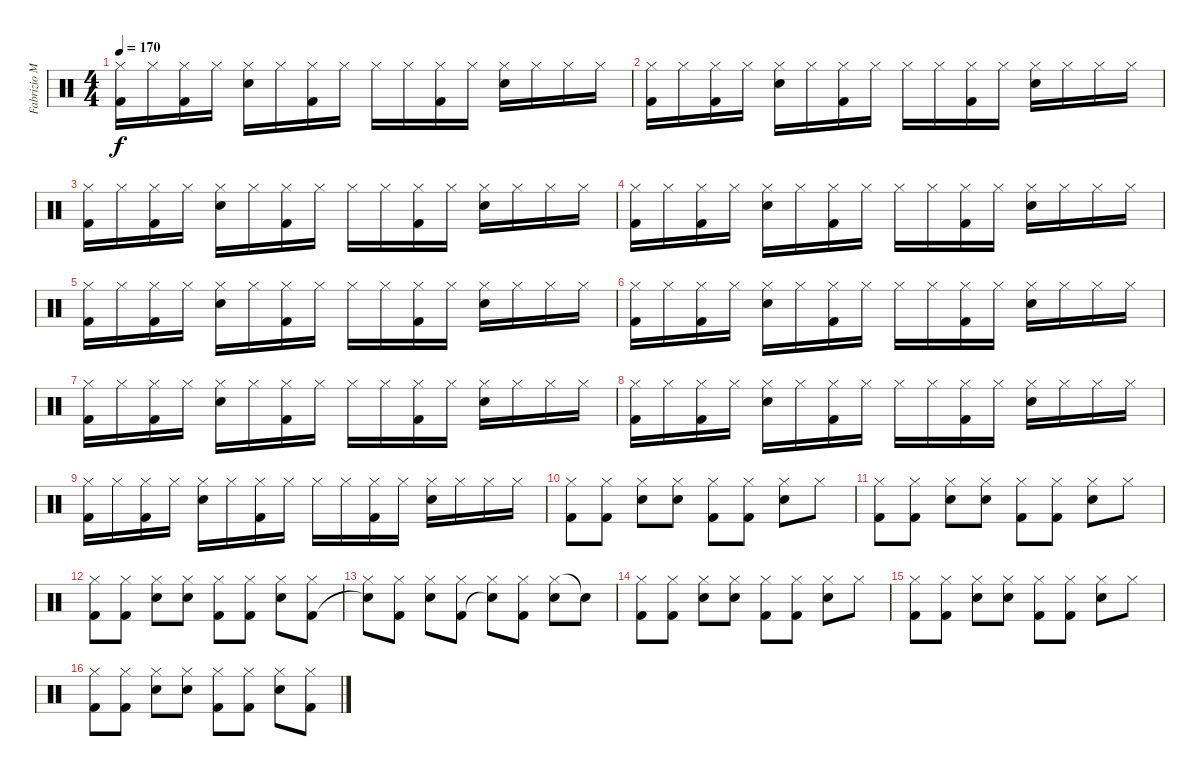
\track ("Fabrizio Moretti" "Fabrizio M") {instrument percussion}
\staff {score}
\articulation defaults
\ts (4 4)
\tempo 170
\clef neutral
\ks c
("Hi-Hat (closed)" "Kick (hit) 2").16{dy f} "Hi-Hat (closed)".16 ("Hi-Hat (closed)" "Kick (hit) 2").16 "Hi-Hat (closed)".16 ("Hi-Hat (closed)" "Electric Snare (hit)").16 "Hi-Hat (closed)".16 ("Hi-Hat (closed)" "Kick (hit) 2").16 "Hi-Hat (closed)".16 "Hi-Hat (closed)".16 "Hi-Hat (closed)".16 ("Hi-Hat (closed)" "Kick (hit) 2").16 "Hi-Hat (closed)".16 ("Hi-Hat (closed)" "Electric Snare (hit)").16 "Hi-Hat (closed)".16 "Hi-Hat (closed)".16 "Hi-Hat (closed)".16 |
("Hi-Hat (closed)" "Kick (hit) 2").16 "Hi-Hat (closed)".16 ("Hi-Hat (closed)" "Kick (hit) 2").16 "Hi-Hat (closed)".16 ("Hi-Hat (closed)" "Electric Snare (hit)").16 "Hi-Hat (closed)".16 ("Hi-Hat (closed)" "Kick (hit) 2").16 "Hi-Hat (closed)".16 "Hi-Hat (closed)".16 "Hi-Hat (closed)".16 ("Hi-Hat (closed)" "Kick (hit) 2").16 "Hi-Hat (closed)".16 ("Hi-Hat (closed)" "Electric Snare (hit)").16 "Hi-Hat (closed)".16 "Hi-Hat (closed)".16 "Hi-Hat (closed)".16 |
("Hi-Hat (closed)" "Kick (hit) 2").16 "Hi-Hat (closed)".16 ("Hi-Hat (closed)" "Kick (hit) 2").16 "Hi-Hat (closed)".16 ("Hi-Hat (closed)" "Electric Snare (hit)").16 "Hi-Hat (closed)".16 ("Hi-Hat (closed)" "Kick (hit) 2").16 "Hi-Hat (closed)".16 "Hi-Hat (closed)".16 "Hi-Hat (closed)".16 ("Hi-Hat (closed)" "Kick (hit) 2").16 "Hi-Hat (closed)".16 ("Hi-Hat (closed)" "Electric Snare (hit)").16 "Hi-Hat (closed)".16 "Hi-Hat (closed)".16 "Hi-Hat (closed)".16 |
("Hi-Hat (closed)" "Kick (hit) 2").16 "Hi-Hat (closed)".16 ("Hi-Hat (closed)" "Kick (hit) 2").16 "Hi-Hat (closed)".16 ("Hi-Hat (closed)" "Electric Snare (hit)").16 "Hi-Hat (closed)".16 ("Hi-Hat (closed)" "Kick (hit) 2").16 "Hi-Hat (closed)".16 "Hi-Hat (closed)".16 "Hi-Hat (closed)".16 ("Hi-Hat (closed)" "Kick (hit) 2").16 "Hi-Hat (closed)".16 ("Hi-Hat (closed)" "Electric Snare (hit)").16 "Hi-Hat (closed)".16 "Hi-Hat (closed)".16 "Hi-Hat (closed)".16 |
("Hi-Hat (closed)" "Kick (hit) 2").16 "Hi-Hat (closed)".16 ("Hi-Hat (closed)" "Kick (hit) 2").16 "Hi-Hat (closed)".16 ("Hi-Hat (closed)" "Electric Snare (hit)").16 "Hi-Hat (closed)".16 ("Hi-Hat (closed)" "Kick (hit) 2").16 "Hi-Hat (closed)".16 "Hi-Hat (closed)".16 "Hi-Hat (closed)".16 ("Hi-Hat (closed)" "Kick (hit) 2").16 "Hi-Hat (closed)".16 ("Hi-Hat (closed)" "Electric Snare (hit)").16 "Hi-Hat (closed)".16 "Hi-Hat (closed)".16 "Hi-Hat (closed)".16 |
("Hi-Hat (closed)" "Kick (hit) 2").16 "Hi-Hat (closed)".16 ("Hi-Hat (closed)" "Kick (hit) 2").16 "Hi-Hat (closed)".16 ("Hi-Hat (closed)" "Electric Snare (hit)").16 "Hi-Hat (closed)".16 ("Hi-Hat (closed)" "Kick (hit) 2").16 "Hi-Hat (closed)".16 "Hi-Hat (closed)".16 "Hi-Hat (closed)".16 ("Hi-Hat (closed)" "Kick (hit) 2").16 "Hi-Hat (closed)".16 ("Hi-Hat (closed)" "Electric Snare (hit)").16 "Hi-Hat (closed)".16 "Hi-Hat (closed)".16 "Hi-Hat (closed)".16 |
("Hi-Hat (closed)" "Kick (hit) 2").16 "Hi-Hat (closed)".16 ("Hi-Hat (closed)" "Kick (hit) 2").16 "Hi-Hat (closed)".16 ("Hi-Hat (closed)" "Electric Snare (hit)").16 "Hi-Hat (closed)".16 ("Hi-Hat (closed)" "Kick (hit) 2").16 "Hi-Hat (closed)".16 "Hi-Hat (closed)".16 "Hi-Hat (closed)".16 ("Hi-Hat (closed)" "Kick (hit) 2").16 "Hi-Hat (closed)".16 ("Hi-Hat (closed)" "Electric Snare (hit)").16 "Hi-Hat (closed)".16 "Hi-Hat (closed)".16 "Hi-Hat (closed)".16 |
("Hi-Hat (closed)" "Kick (hit) 2").16 "Hi-Hat (closed)".16 ("Hi-Hat (closed)" "Kick (hit) 2").16 "Hi-Hat (closed)".16 ("Hi-Hat (closed)" "Electric Snare (hit)").16 "Hi-Hat (closed)".16 ("Hi-Hat (closed)" "Kick (hit) 2").16 "Hi-Hat (closed)".16 "Hi-Hat (closed)".16 "Hi-Hat (closed)".16 ("Hi-Hat (closed)" "Kick (hit) 2").16 "Hi-Hat (closed)".16 ("Hi-Hat (closed)" "Electric Snare (hit)").16 "Hi-Hat (closed)".16 "Hi-Hat (closed)".16 "Hi-Hat (closed)".16 |
("Hi-Hat (closed)" "Kick (hit) 2").16 "Hi-Hat (closed)".16 ("Hi-Hat (closed)" "Kick (hit) 2").16 "Hi-Hat (closed)".16 ("Hi-Hat (closed)" "Electric Snare (hit)").16 "Hi-Hat (closed)".16 ("Hi-Hat (closed)" "Kick (hit) 2").16 "Hi-Hat (closed)".16 "Hi-Hat (closed)".16 "Hi-Hat (closed)".16 ("Hi-Hat (closed)" "Kick (hit) 2").16 "Hi-Hat (closed)".16 ("Hi-Hat (closed)" "Electric Snare (hit)").16 "Hi-Hat (closed)".16 "Hi-Hat (closed)".16 "Hi-Hat (closed)".16 |
("Hi-Hat (closed)" "Kick (hit) 2").8 ("Hi-Hat (closed)" "Kick (hit) 2").8 ("Hi-Hat (closed)" "Electric Snare (hit)").8 ("Hi-Hat (closed)" "Electric Snare (hit)").8 ("Hi-Hat (closed)" "Kick (hit) 2").8 ("Hi-Hat (closed)" "Kick (hit) 2").8 ("Hi-Hat (closed)" "Electric Snare (hit)").8 "Hi-Hat (closed)".8 |
("Hi-Hat (closed)" "Kick (hit) 2").8 ("Hi-Hat (closed)" "Kick (hit) 2").8 ("Hi-Hat (closed)" "Electric Snare (hit)").8 ("Hi-Hat (closed)" "Electric Snare (hit)").8 ("Hi-Hat (closed)" "Kick (hit) 2").8 ("Hi-Hat (closed)" "Kick (hit) 2").8 ("Hi-Hat (closed)" "Electric Snare (hit)").8 "Hi-Hat (closed)".8 |
("Hi-Hat (closed)" "Kick (hit) 2").8 ("Hi-Hat (closed)" "Kick (hit) 2").8 ("Hi-Hat (closed)" "Electric Snare (hit)").8 ("Hi-Hat (closed)" "Electric Snare (hit)").8 ("Hi-Hat (closed)" "Kick (hit) 2").8 ("Hi-Hat (closed)" "Kick (hit) 2").8 ("Hi-Hat (closed)" "Electric Snare (hit)").8 ("Hi-Hat (closed)" "Kick (hit) 2").8 |
("Hi-Hat (closed)" "Snare (hit)"{t}).8 ("Hi-Hat (closed)" "Kick (hit) 2").8 ("Hi-Hat (closed)" "Electric Snare (hit)").8 ("Hi-Hat (closed)" "Kick (hit) 2").8 ("Hi-Hat (closed)" "Snare (hit)"{t}).8 ("Hi-Hat (closed)" "Kick (hit) 2").8 ("Hi-Hat (closed)" "Electric Snare (hit)").8 "Snare (hit)"{t}.8 |
("Hi-Hat (closed)" "Kick (hit) 2").8 ("Hi-Hat (closed)" "Kick (hit) 2").8 ("Hi-Hat (closed)" "Electric Snare (hit)").8 ("Hi-Hat (closed)" "Electric Snare (hit)").8 ("Hi-Hat (closed)" "Kick (hit) 2").8 ("Hi-Hat (closed)" "Kick (hit) 2").8 ("Hi-Hat (closed)" "Electric Snare (hit)").8 "Hi-Hat (closed)".8 |
("Hi-Hat (closed)" "Kick (hit) 2").8 ("Hi-Hat (closed)" "Kick (hit) 2").8 ("Hi-Hat (closed)" "Electric Snare (hit)").8 ("Hi-Hat (closed)" "Electric Snare (hit)").8 ("Hi-Hat (closed)" "Kick (hit) 2").8 ("Hi-Hat (closed)" "Kick (hit) 2").8 ("Hi-Hat (closed)" "Electric Snare (hit)").8 "Hi-Hat (closed)".8 |
("Hi-Hat (closed)" "Kick (hit) 2").8 ("Hi-Hat (closed)" "Kick (hit) 2").8 ("Hi-Hat (closed)" "Electric Snare (hit)").8 ("Hi-Hat (closed)" "Electric Snare (hit)").8 ("Hi-Hat (closed)" "Kick (hit) 2").8 ("Hi-Hat (closed)" "Kick (hit) 2").8 ("Hi-Hat (closed)" "Electric Snare (hit)").8 ("Hi-Hat (closed)" "Kick (hit) 2").8
